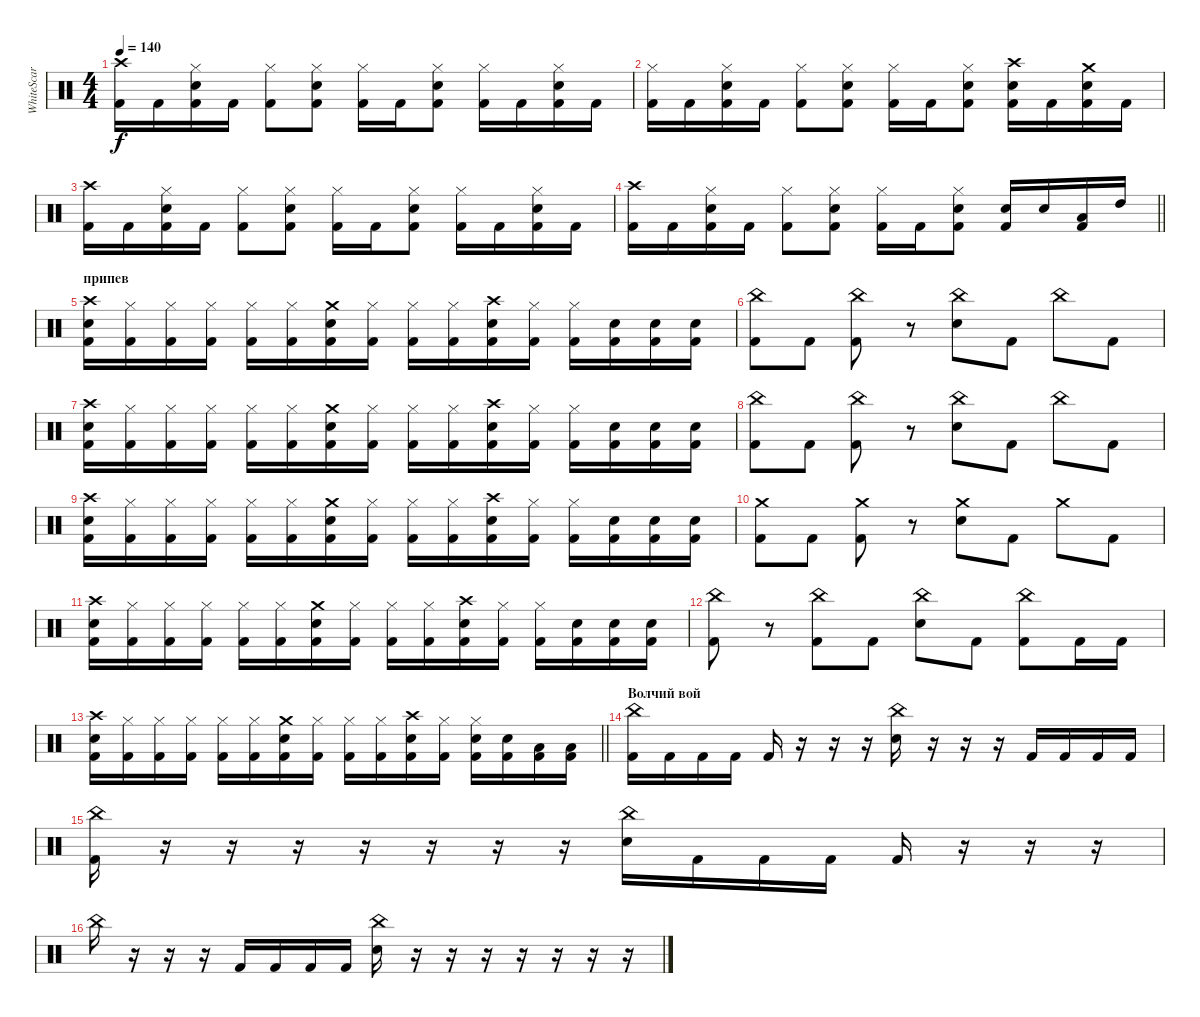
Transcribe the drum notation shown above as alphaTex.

\track ("WhiteScar " "WhiteScar ") {instrument percussion}
\staff {score}
\articulation defaults
\ts (4 4)
\tempo 140
\clef neutral
\ks c
("Crash high (hit)" "Kick (hit) 2").16{dy f} "Kick (hit) 2".16 ("Snare (hit) 2" "Hi-Hat (closed)" "Kick (hit) 2").16 "Kick (hit) 2".16 ("Hi-Hat (closed)" "Kick (hit) 2").8 ("Snare (hit) 2" "Hi-Hat (closed)" "Kick (hit) 2").8 ("Hi-Hat (closed)" "Kick (hit) 2").16 "Kick (hit) 2".16 ("Snare (hit) 2" "Hi-Hat (closed)" "Kick (hit) 2").8 ("Hi-Hat (closed)" "Kick (hit) 2").16 "Kick (hit) 2".16 ("Snare (hit) 2" "Hi-Hat (closed)" "Kick (hit) 2").16 "Kick (hit) 2".16 |
("Hi-Hat (closed)" "Kick (hit) 2").16 "Kick (hit) 2".16 ("Snare (hit) 2" "Hi-Hat (closed)" "Kick (hit) 2").16 "Kick (hit) 2".16 ("Hi-Hat (closed)" "Kick (hit) 2").8 ("Snare (hit) 2" "Hi-Hat (closed)" "Kick (hit) 2").8 ("Hi-Hat (closed)" "Kick (hit) 2").16 "Kick (hit) 2".16 ("Snare (hit) 2" "Hi-Hat (closed)" "Kick (hit) 2").8 ("Crash high (hit)" "Snare (hit) 2" "Kick (hit) 2").16 "Kick (hit) 2".16 ("Crash medium (hit)" "Snare (hit) 2" "Kick (hit) 2").16 "Kick (hit) 2".16 |
("Crash high (hit)" "Kick (hit) 2").16 "Kick (hit) 2".16 ("Snare (hit) 2" "Hi-Hat (closed)" "Kick (hit) 2").16 "Kick (hit) 2".16 ("Hi-Hat (closed)" "Kick (hit) 2").8 ("Snare (hit) 2" "Hi-Hat (closed)" "Kick (hit) 2").8 ("Hi-Hat (closed)" "Kick (hit) 2").16 "Kick (hit) 2".16 ("Snare (hit) 2" "Hi-Hat (closed)" "Kick (hit) 2").8 ("Hi-Hat (closed)" "Kick (hit) 2").16 "Kick (hit) 2".16 ("Snare (hit) 2" "Hi-Hat (closed)" "Kick (hit) 2").16 "Kick (hit) 2".16 |
\barLineRight lightlight
("Crash high (hit)" "Kick (hit) 2").16 "Kick (hit) 2".16 ("Snare (hit) 2" "Hi-Hat (closed)" "Kick (hit) 2").16 "Kick (hit) 2".16 ("Hi-Hat (closed)" "Kick (hit) 2").8 ("Snare (hit) 2" "Hi-Hat (closed)" "Kick (hit) 2").8 ("Hi-Hat (closed)" "Kick (hit) 2").16 "Kick (hit) 2".16 ("Snare (hit) 2" "Hi-Hat (closed)" "Kick (hit) 2").8 ("Snare (hit) 2" "Kick (hit) 2").16 "Snare (hit) 2".16 ("Low Tom (hit)" "Kick (hit) 2").16 "High Tom (hit)".16 |
\section ("" "припев")
("Crash high (hit)" "Snare (hit) 2" "Kick (hit) 2").16 ("Hi-Hat (closed)" "Kick (hit) 2").16 ("Hi-Hat (closed)" "Kick (hit) 2").16 ("Hi-Hat (closed)" "Kick (hit) 2").16 ("Hi-Hat (closed)" "Kick (hit) 2").16 ("Hi-Hat (closed)" "Kick (hit) 2").16 ("Crash medium (hit)" "Snare (hit) 2" "Kick (hit) 2").16 ("Hi-Hat (closed)" "Kick (hit) 2").16 ("Hi-Hat (closed)" "Kick (hit) 2").16 ("Hi-Hat (closed)" "Kick (hit) 2").16 ("Crash high (hit)" "Snare (hit) 2" "Kick (hit) 2").16 ("Hi-Hat (closed)" "Kick (hit) 2").16 ("Hi-Hat (closed)" "Kick (hit) 2").16 ("Snare (hit) 2" "Kick (hit) 2").16 ("Snare (hit) 2" "Kick (hit) 2").16 ("Snare (hit) 2" "Kick (hit) 2").16 |
("China (hit)" "Kick (hit) 2").8 "Kick (hit) 2".8 ("China (hit)" "Kick (hit) 2").8 r.8 ("China (hit)" "Snare (hit) 2").8 "Kick (hit) 2".8 "China (hit)".8 "Kick (hit) 2".8 |
("Crash high (hit)" "Snare (hit) 2" "Kick (hit) 2").16 ("Hi-Hat (closed)" "Kick (hit) 2").16 ("Hi-Hat (closed)" "Kick (hit) 2").16 ("Hi-Hat (closed)" "Kick (hit) 2").16 ("Hi-Hat (closed)" "Kick (hit) 2").16 ("Hi-Hat (closed)" "Kick (hit) 2").16 ("Crash medium (hit)" "Snare (hit) 2" "Kick (hit) 2").16 ("Hi-Hat (closed)" "Kick (hit) 2").16 ("Hi-Hat (closed)" "Kick (hit) 2").16 ("Hi-Hat (closed)" "Kick (hit) 2").16 ("Crash high (hit)" "Snare (hit) 2" "Kick (hit) 2").16 ("Hi-Hat (closed)" "Kick (hit) 2").16 ("Hi-Hat (closed)" "Kick (hit) 2").16 ("Snare (hit) 2" "Kick (hit) 2").16 ("Snare (hit) 2" "Kick (hit) 2").16 ("Snare (hit) 2" "Kick (hit) 2").16 |
("China (hit)" "Kick (hit) 2").8 "Kick (hit) 2".8 ("China (hit)" "Kick (hit) 2").8 r.8 ("China (hit)" "Snare (hit) 2").8 "Kick (hit) 2".8 "China (hit)".8 "Kick (hit) 2".8 |
("Crash high (hit)" "Snare (hit) 2" "Kick (hit) 2").16 ("Hi-Hat (closed)" "Kick (hit) 2").16 ("Hi-Hat (closed)" "Kick (hit) 2").16 ("Hi-Hat (closed)" "Kick (hit) 2").16 ("Hi-Hat (closed)" "Kick (hit) 2").16 ("Hi-Hat (closed)" "Kick (hit) 2").16 ("Crash medium (hit)" "Snare (hit) 2" "Kick (hit) 2").16 ("Hi-Hat (closed)" "Kick (hit) 2").16 ("Hi-Hat (closed)" "Kick (hit) 2").16 ("Hi-Hat (closed)" "Kick (hit) 2").16 ("Crash high (hit)" "Snare (hit) 2" "Kick (hit) 2").16 ("Hi-Hat (closed)" "Kick (hit) 2").16 ("Hi-Hat (closed)" "Kick (hit) 2").16 ("Snare (hit) 2" "Kick (hit) 2").16 ("Snare (hit) 2" "Kick (hit) 2").16 ("Snare (hit) 2" "Kick (hit) 2").16 |
("Crash medium (hit)" "Kick (hit) 2").8 "Kick (hit) 2".8 ("Crash medium (hit)" "Kick (hit) 2").8 r.8 ("Crash medium (hit)" "Snare (hit) 2").8 "Kick (hit) 2".8 "Crash medium (hit)".8 "Kick (hit) 2".8 |
("Crash high (hit)" "Snare (hit) 2" "Kick (hit) 2").16 ("Hi-Hat (closed)" "Kick (hit) 2").16 ("Hi-Hat (closed)" "Kick (hit) 2").16 ("Hi-Hat (closed)" "Kick (hit) 2").16 ("Hi-Hat (closed)" "Kick (hit) 2").16 ("Hi-Hat (closed)" "Kick (hit) 2").16 ("Crash medium (hit)" "Snare (hit) 2" "Kick (hit) 2").16 ("Hi-Hat (closed)" "Kick (hit) 2").16 ("Hi-Hat (closed)" "Kick (hit) 2").16 ("Hi-Hat (closed)" "Kick (hit) 2").16 ("Crash high (hit)" "Snare (hit) 2" "Kick (hit) 2").16 ("Hi-Hat (closed)" "Kick (hit) 2").16 ("Hi-Hat (closed)" "Kick (hit) 2").16 ("Snare (hit) 2" "Kick (hit) 2").16 ("Snare (hit) 2" "Kick (hit) 2").16 ("Snare (hit) 2" "Kick (hit) 2").16 |
("China (hit)" "Kick (hit) 2").8 r.8 ("China (hit)" "Kick (hit) 2").8 "Kick (hit) 2".8 ("China (hit)" "Snare (hit) 2").8 "Kick (hit) 2".8 ("China (hit)" "Kick (hit) 2").8 "Kick (hit) 2".16 "Kick (hit) 2".16 |
\barLineRight lightlight
("Crash high (hit)" "Snare (hit) 2" "Kick (hit) 2").16 ("Hi-Hat (closed)" "Kick (hit) 2").16 ("Hi-Hat (closed)" "Kick (hit) 2").16 ("Hi-Hat (closed)" "Kick (hit) 2").16 ("Hi-Hat (closed)" "Kick (hit) 2").16 ("Hi-Hat (closed)" "Kick (hit) 2").16 ("Crash medium (hit)" "Snare (hit) 2" "Kick (hit) 2").16 ("Hi-Hat (closed)" "Kick (hit) 2").16 ("Hi-Hat (closed)" "Kick (hit) 2").16 ("Hi-Hat (closed)" "Kick (hit) 2").16 ("Crash high (hit)" "Snare (hit) 2" "Kick (hit) 2").16 ("Hi-Hat (closed)" "Kick (hit) 2").16 ("Snare (hit) 2" "Hi-Hat (closed)" "Kick (hit) 2").16 ("Snare (hit) 2" "Kick (hit) 2").16 ("Low Tom (hit)" "Kick (hit) 2").16 ("Low Tom (hit)" "Kick (hit) 2").16 |
\section ("" "Волчий вой")
("China (hit)" "Kick (hit) 2").16 "Kick (hit) 2".16 "Kick (hit) 2".16 "Kick (hit) 2".16 "Kick (hit) 2".16 r.16 r.16 r.16 ("China (hit)" "Snare (hit) 2").16 r.16 r.16 r.16 "Kick (hit) 2".16 "Kick (hit) 2".16 "Kick (hit) 2".16 "Kick (hit) 2".16 |
("China (hit)" "Kick (hit) 2").16 r.16 r.16 r.16 r.16 r.16 r.16 r.16 ("China (hit)" "Snare (hit) 2").16 "Kick (hit) 2".16 "Kick (hit) 2".16 "Kick (hit) 2".16 "Kick (hit) 2".16 r.16 r.16 r.16 |
"China (hit)".16 r.16 r.16 r.16 "Kick (hit) 2".16 "Kick (hit) 2".16 "Kick (hit) 2".16 "Kick (hit) 2".16 ("China (hit)" "Snare (hit) 2").16 r.16 r.16 r.16 r.16 r.16 r.16 r.16
